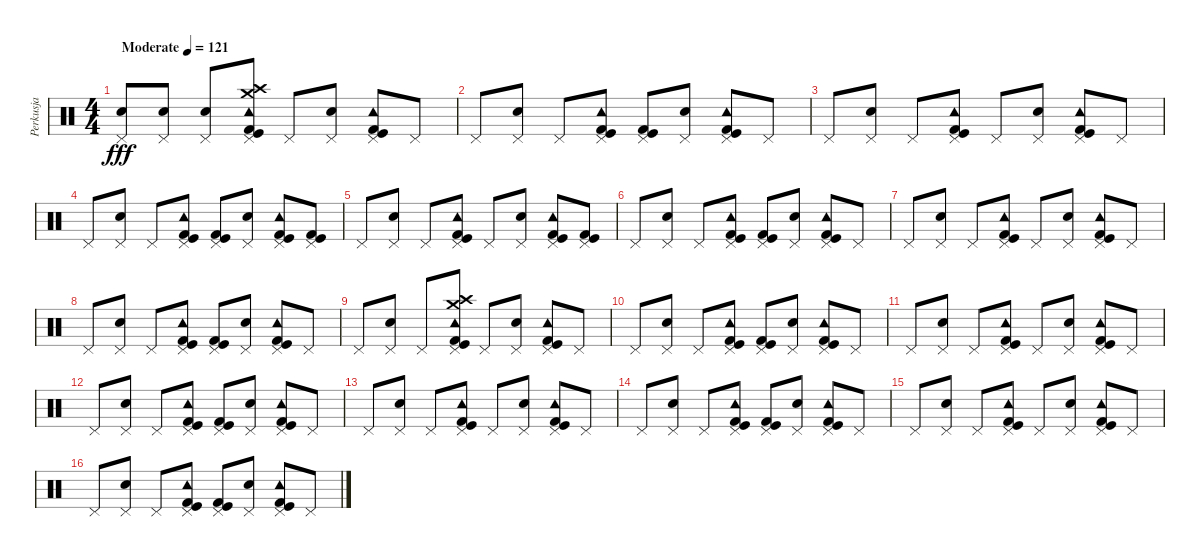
\track ("Perkusja" "Perkusja") {instrument percussion}
\staff {score}
\articulation defaults
\ts (4 4)
\tempo (121 "Moderate")
\clef neutral
\ks c
("Pedal Hi-Hat (hit)" "Electric Snare (hit)").8{dy fff} ("Pedal Hi-Hat (hit)" "Electric Snare (hit)").8 ("Electric Snare (hit)" "Pedal Hi-Hat (hit)").8 ("Kick (hit)" "Kick (hit) 2" "Crash medium (hit)" "Crash high (hit)" "Tambourine (hit)" "Pedal Hi-Hat (hit)").8 "Pedal Hi-Hat (hit)".8 ("Pedal Hi-Hat (hit)" "Hand Clap (hit)").8 ("Pedal Hi-Hat (hit)" "Tambourine (hit)" "Kick (hit) 2" "Kick (hit)").8 "Pedal Hi-Hat (hit)".8 |
"Pedal Hi-Hat (hit)".8 ("Hand Clap (hit)" "Pedal Hi-Hat (hit)").8 "Pedal Hi-Hat (hit)".8 ("Pedal Hi-Hat (hit)" "Tambourine (hit)" "Kick (hit) 2" "Kick (hit)").8 ("Kick (hit) 2" "Kick (hit)" "Pedal Hi-Hat (hit)").8 ("Pedal Hi-Hat (hit)" "Hand Clap (hit)").8 ("Pedal Hi-Hat (hit)" "Tambourine (hit)" "Kick (hit) 2" "Kick (hit)").8 "Pedal Hi-Hat (hit)".8 |
"Pedal Hi-Hat (hit)".8 ("Hand Clap (hit)" "Pedal Hi-Hat (hit)").8 "Pedal Hi-Hat (hit)".8 ("Pedal Hi-Hat (hit)" "Tambourine (hit)" "Kick (hit) 2" "Kick (hit)").8 "Pedal Hi-Hat (hit)".8 ("Hand Clap (hit)" "Pedal Hi-Hat (hit)").8 ("Kick (hit)" "Kick (hit) 2" "Tambourine (hit)" "Pedal Hi-Hat (hit)").8 "Pedal Hi-Hat (hit)".8 |
"Pedal Hi-Hat (hit)".8 ("Pedal Hi-Hat (hit)" "Hand Clap (hit)").8 "Pedal Hi-Hat (hit)".8 ("Kick (hit)" "Kick (hit) 2" "Tambourine (hit)" "Pedal Hi-Hat (hit)").8 ("Kick (hit)" "Kick (hit) 2" "Pedal Hi-Hat (hit)").8 ("Pedal Hi-Hat (hit)" "Hand Clap (hit)").8 ("Kick (hit) 2" "Kick (hit)" "Pedal Hi-Hat (hit)" "Tambourine (hit)").8 ("Pedal Hi-Hat (hit)" "Kick (hit) 2" "Kick (hit)").8 |
"Pedal Hi-Hat (hit)".8 ("Hand Clap (hit)" "Pedal Hi-Hat (hit)").8 "Pedal Hi-Hat (hit)".8 ("Pedal Hi-Hat (hit)" "Tambourine (hit)" "Kick (hit) 2" "Kick (hit)").8 "Pedal Hi-Hat (hit)".8 ("Pedal Hi-Hat (hit)" "Hand Clap (hit)").8 ("Kick (hit)" "Kick (hit) 2" "Tambourine (hit)" "Pedal Hi-Hat (hit)").8 ("Kick (hit)" "Kick (hit) 2" "Pedal Hi-Hat (hit)").8 |
"Pedal Hi-Hat (hit)".8 ("Hand Clap (hit)" "Pedal Hi-Hat (hit)").8 "Pedal Hi-Hat (hit)".8 ("Pedal Hi-Hat (hit)" "Tambourine (hit)" "Kick (hit) 2" "Kick (hit)").8 ("Kick (hit)" "Kick (hit) 2" "Pedal Hi-Hat (hit)").8 ("Hand Clap (hit)" "Pedal Hi-Hat (hit)").8 ("Kick (hit)" "Kick (hit) 2" "Tambourine (hit)" "Pedal Hi-Hat (hit)").8 "Pedal Hi-Hat (hit)".8 |
"Pedal Hi-Hat (hit)".8 ("Pedal Hi-Hat (hit)" "Hand Clap (hit)").8 "Pedal Hi-Hat (hit)".8 ("Kick (hit)" "Kick (hit) 2" "Tambourine (hit)" "Pedal Hi-Hat (hit)").8 "Pedal Hi-Hat (hit)".8 ("Pedal Hi-Hat (hit)" "Hand Clap (hit)").8 ("Pedal Hi-Hat (hit)" "Tambourine (hit)" "Kick (hit) 2" "Kick (hit)").8 "Pedal Hi-Hat (hit)".8 |
"Pedal Hi-Hat (hit)".8 ("Pedal Hi-Hat (hit)" "Hand Clap (hit)").8 "Pedal Hi-Hat (hit)".8 ("Pedal Hi-Hat (hit)" "Tambourine (hit)" "Kick (hit) 2" "Kick (hit)").8 ("Pedal Hi-Hat (hit)" "Kick (hit) 2" "Kick (hit)").8 ("Pedal Hi-Hat (hit)" "Hand Clap (hit)").8 ("Tambourine (hit)" "Pedal Hi-Hat (hit)" "Kick (hit)" "Kick (hit) 2").8 "Pedal Hi-Hat (hit)".8 |
"Pedal Hi-Hat (hit)".8 ("Hand Clap (hit)" "Pedal Hi-Hat (hit)").8 "Pedal Hi-Hat (hit)".8 ("Pedal Hi-Hat (hit)" "Crash high (hit)" "Crash medium (hit)" "Tambourine (hit)" "Kick (hit) 2" "Kick (hit)").8 "Pedal Hi-Hat (hit)".8 ("Pedal Hi-Hat (hit)" "Hand Clap (hit)").8 ("Kick (hit)" "Kick (hit) 2" "Tambourine (hit)" "Pedal Hi-Hat (hit)").8 "Pedal Hi-Hat (hit)".8 |
"Pedal Hi-Hat (hit)".8 ("Pedal Hi-Hat (hit)" "Hand Clap (hit)").8 "Pedal Hi-Hat (hit)".8 ("Pedal Hi-Hat (hit)" "Tambourine (hit)" "Kick (hit) 2" "Kick (hit)").8 ("Kick (hit)" "Kick (hit) 2" "Pedal Hi-Hat (hit)").8 ("Pedal Hi-Hat (hit)" "Hand Clap (hit)").8 ("Kick (hit)" "Kick (hit) 2" "Tambourine (hit)" "Pedal Hi-Hat (hit)").8 "Pedal Hi-Hat (hit)".8 |
"Pedal Hi-Hat (hit)".8 ("Pedal Hi-Hat (hit)" "Hand Clap (hit)").8 "Pedal Hi-Hat (hit)".8 ("Kick (hit)" "Kick (hit) 2" "Tambourine (hit)" "Pedal Hi-Hat (hit)").8 "Pedal Hi-Hat (hit)".8 ("Pedal Hi-Hat (hit)" "Hand Clap (hit)").8 ("Pedal Hi-Hat (hit)" "Tambourine (hit)" "Kick (hit) 2" "Kick (hit)").8 "Pedal Hi-Hat (hit)".8 |
"Pedal Hi-Hat (hit)".8 ("Pedal Hi-Hat (hit)" "Hand Clap (hit)").8 "Pedal Hi-Hat (hit)".8 ("Pedal Hi-Hat (hit)" "Tambourine (hit)" "Kick (hit) 2" "Kick (hit)").8 ("Pedal Hi-Hat (hit)" "Kick (hit) 2" "Kick (hit)").8 ("Pedal Hi-Hat (hit)" "Hand Clap (hit)").8 ("Tambourine (hit)" "Pedal Hi-Hat (hit)" "Kick (hit)" "Kick (hit) 2").8 "Pedal Hi-Hat (hit)".8 |
"Pedal Hi-Hat (hit)".8 ("Pedal Hi-Hat (hit)" "Hand Clap (hit)").8 "Pedal Hi-Hat (hit)".8 ("Pedal Hi-Hat (hit)" "Tambourine (hit)" "Kick (hit) 2" "Kick (hit)").8 "Pedal Hi-Hat (hit)".8 ("Pedal Hi-Hat (hit)" "Hand Clap (hit)").8 ("Kick (hit)" "Kick (hit) 2" "Tambourine (hit)" "Pedal Hi-Hat (hit)").8 "Pedal Hi-Hat (hit)".8 |
"Pedal Hi-Hat (hit)".8 ("Pedal Hi-Hat (hit)" "Hand Clap (hit)").8 "Pedal Hi-Hat (hit)".8 ("Kick (hit)" "Kick (hit) 2" "Tambourine (hit)" "Pedal Hi-Hat (hit)").8 ("Kick (hit)" "Kick (hit) 2" "Pedal Hi-Hat (hit)").8 ("Pedal Hi-Hat (hit)" "Hand Clap (hit)").8 ("Pedal Hi-Hat (hit)" "Tambourine (hit)" "Kick (hit) 2" "Kick (hit)").8 "Pedal Hi-Hat (hit)".8 |
"Pedal Hi-Hat (hit)".8 ("Pedal Hi-Hat (hit)" "Hand Clap (hit)").8 "Pedal Hi-Hat (hit)".8 ("Pedal Hi-Hat (hit)" "Tambourine (hit)" "Kick (hit) 2" "Kick (hit)").8 "Pedal Hi-Hat (hit)".8 ("Pedal Hi-Hat (hit)" "Hand Clap (hit)").8 ("Pedal Hi-Hat (hit)" "Tambourine (hit)" "Kick (hit) 2" "Kick (hit)").8 "Pedal Hi-Hat (hit)".8 |
"Pedal Hi-Hat (hit)".8 ("Pedal Hi-Hat (hit)" "Hand Clap (hit)").8 "Pedal Hi-Hat (hit)".8 ("Pedal Hi-Hat (hit)" "Tambourine (hit)" "Kick (hit) 2" "Kick (hit)").8 ("Pedal Hi-Hat (hit)" "Kick (hit) 2" "Kick (hit)").8 ("Pedal Hi-Hat (hit)" "Hand Clap (hit)").8 ("Kick (hit) 2" "Kick (hit)" "Pedal Hi-Hat (hit)" "Tambourine (hit)").8 "Pedal Hi-Hat (hit)".8
